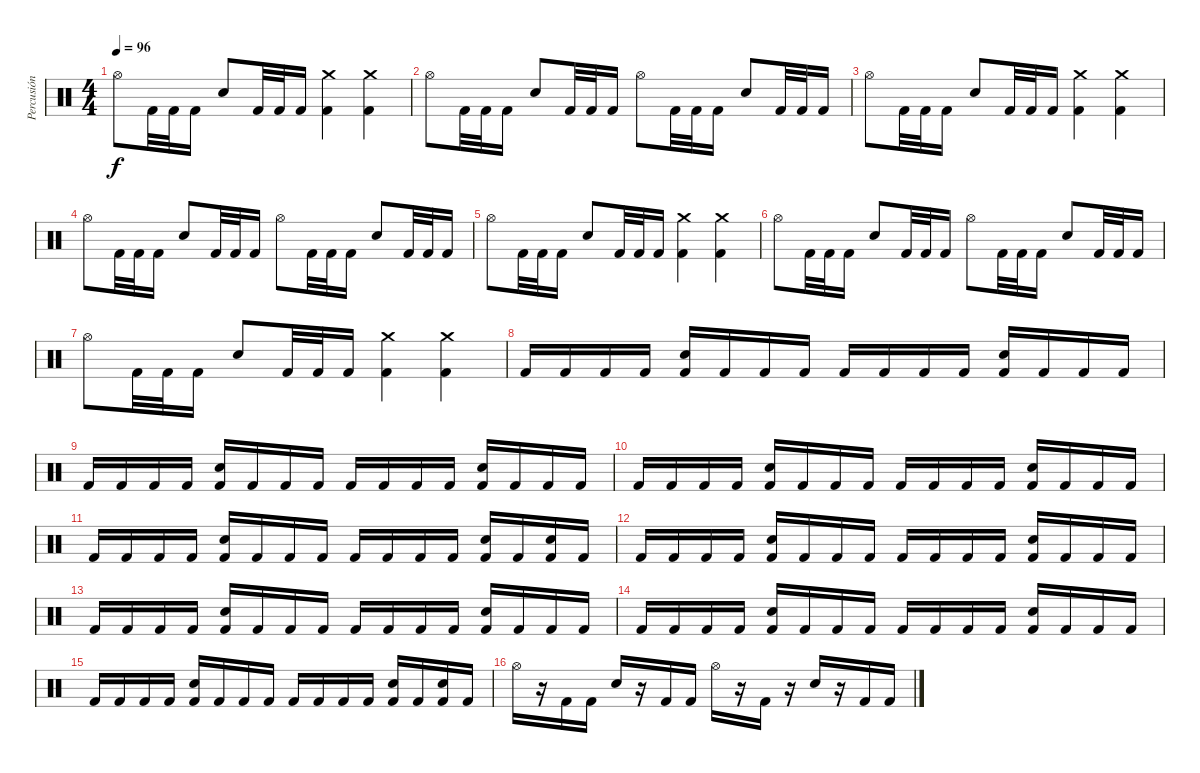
\track ("Percusión" "Percusión") {instrument percussion}
\staff {score}
\articulation defaults
\ts (4 4)
\tempo 96
\clef neutral
\ks c "Hi-Hat (open)".8{dy f} "Kick (hit) 2".32 "Kick (hit) 2".32 "Kick (hit) 2".16 "Snare (hit) 2".8 "Kick (hit) 2".32 "Kick (hit) 2".32 "Kick (hit) 2".16
("Kick (hit) 2" "Crash medium (hit)").4 ("Kick (hit) 2" "Crash medium (hit)").4 |
"Hi-Hat (open)".8 "Kick (hit) 2".32 "Kick (hit) 2".32 "Kick (hit) 2".16 "Snare (hit) 2".8 "Kick (hit) 2".32 "Kick (hit) 2".32 "Kick (hit) 2".16 "Hi-Hat (open)".8 "Kick (hit) 2".32 "Kick (hit) 2".32 "Kick (hit) 2".16 "Snare (hit) 2".8 "Kick (hit) 2".32 "Kick (hit) 2".32 "Kick (hit) 2".16 |
"Hi-Hat (open)".8 "Kick (hit) 2".32 "Kick (hit) 2".32 "Kick (hit) 2".16 "Snare (hit) 2".8 "Kick (hit) 2".32 "Kick (hit) 2".32 "Kick (hit) 2".16 ("Kick (hit) 2" "Crash medium (hit)").4 ("Kick (hit) 2" "Crash medium (hit)").4 |
"Hi-Hat (open)".8 "Kick (hit) 2".32 "Kick (hit) 2".32 "Kick (hit) 2".16 "Snare (hit) 2".8 "Kick (hit) 2".32 "Kick (hit) 2".32 "Kick (hit) 2".16 "Hi-Hat (open)".8 "Kick (hit) 2".32 "Kick (hit) 2".32 "Kick (hit) 2".16 "Snare (hit) 2".8 "Kick (hit) 2".32 "Kick (hit) 2".32 "Kick (hit) 2".16 |
"Hi-Hat (open)".8 "Kick (hit) 2".32 "Kick (hit) 2".32 "Kick (hit) 2".16 "Snare (hit) 2".8 "Kick (hit) 2".32 "Kick (hit) 2".32 "Kick (hit) 2".16 ("Kick (hit) 2" "Crash medium (hit)").4 ("Kick (hit) 2" "Crash medium (hit)").4 |
"Hi-Hat (open)".8 "Kick (hit) 2".32 "Kick (hit) 2".32 "Kick (hit) 2".16 "Snare (hit) 2".8 "Kick (hit) 2".32 "Kick (hit) 2".32 "Kick (hit) 2".16 "Hi-Hat (open)".8 "Kick (hit) 2".32 "Kick (hit) 2".32 "Kick (hit) 2".16 "Snare (hit) 2".8 "Kick (hit) 2".32 "Kick (hit) 2".32 "Kick (hit) 2".16 |
"Hi-Hat (open)".8 "Kick (hit) 2".32 "Kick (hit) 2".32 "Kick (hit) 2".16 "Snare (hit) 2".8 "Kick (hit) 2".32 "Kick (hit) 2".32 "Kick (hit) 2".16 ("Kick (hit) 2" "Crash medium (hit)").4 ("Kick (hit) 2" "Crash medium (hit)").4 |
"Kick (hit) 2".16 "Kick (hit) 2".16 "Kick (hit) 2".16 "Kick (hit) 2".16 ("Kick (hit) 2" "Snare (hit) 2").16 "Kick (hit) 2".16 "Kick (hit) 2".16 "Kick (hit) 2".16 "Kick (hit) 2".16 "Kick (hit) 2".16 "Kick (hit) 2".16 "Kick (hit) 2".16 ("Kick (hit) 2" "Snare (hit) 2").16 "Kick (hit) 2".16 "Kick (hit) 2".16 "Kick (hit) 2".16 |
"Kick (hit) 2".16 "Kick (hit) 2".16 "Kick (hit) 2".16 "Kick (hit) 2".16 ("Kick (hit) 2" "Snare (hit) 2").16 "Kick (hit) 2".16 "Kick (hit) 2".16 "Kick (hit) 2".16 "Kick (hit) 2".16 "Kick (hit) 2".16 "Kick (hit) 2".16 "Kick (hit) 2".16 ("Kick (hit) 2" "Snare (hit) 2").16 "Kick (hit) 2".16 "Kick (hit) 2".16 "Kick (hit) 2".16 |
"Kick (hit) 2".16 "Kick (hit) 2".16 "Kick (hit) 2".16 "Kick (hit) 2".16 ("Kick (hit) 2" "Snare (hit) 2").16 "Kick (hit) 2".16 "Kick (hit) 2".16 "Kick (hit) 2".16 "Kick (hit) 2".16 "Kick (hit) 2".16 "Kick (hit) 2".16 "Kick (hit) 2".16 ("Kick (hit) 2" "Snare (hit) 2").16 "Kick (hit) 2".16 "Kick (hit) 2".16 "Kick (hit) 2".16 |
"Kick (hit) 2".16 "Kick (hit) 2".16 "Kick (hit) 2".16 "Kick (hit) 2".16 ("Kick (hit) 2" "Snare (hit) 2").16 "Kick (hit) 2".16 "Kick (hit) 2".16 "Kick (hit) 2".16 "Kick (hit) 2".16 "Kick (hit) 2".16 "Kick (hit) 2".16 "Kick (hit) 2".16 ("Kick (hit) 2" "Snare (hit) 2").16 "Kick (hit) 2".16 ("Kick (hit) 2" "Snare (hit) 2").16 "Kick (hit) 2".16 |
"Kick (hit) 2".16 "Kick (hit) 2".16 "Kick (hit) 2".16 "Kick (hit) 2".16 ("Kick (hit) 2" "Snare (hit) 2").16 "Kick (hit) 2".16 "Kick (hit) 2".16 "Kick (hit) 2".16 "Kick (hit) 2".16 "Kick (hit) 2".16 "Kick (hit) 2".16 "Kick (hit) 2".16 ("Kick (hit) 2" "Snare (hit) 2").16 "Kick (hit) 2".16 "Kick (hit) 2".16 "Kick (hit) 2".16 |
"Kick (hit) 2".16 "Kick (hit) 2".16 "Kick (hit) 2".16 "Kick (hit) 2".16 ("Kick (hit) 2" "Snare (hit) 2").16 "Kick (hit) 2".16 "Kick (hit) 2".16 "Kick (hit) 2".16 "Kick (hit) 2".16 "Kick (hit) 2".16 "Kick (hit) 2".16 "Kick (hit) 2".16 ("Kick (hit) 2" "Snare (hit) 2").16 "Kick (hit) 2".16 "Kick (hit) 2".16 "Kick (hit) 2".16 |
"Kick (hit) 2".16 "Kick (hit) 2".16 "Kick (hit) 2".16 "Kick (hit) 2".16 ("Kick (hit) 2" "Snare (hit) 2").16 "Kick (hit) 2".16 "Kick (hit) 2".16 "Kick (hit) 2".16 "Kick (hit) 2".16 "Kick (hit) 2".16 "Kick (hit) 2".16 "Kick (hit) 2".16 ("Kick (hit) 2" "Snare (hit) 2").16 "Kick (hit) 2".16 "Kick (hit) 2".16 "Kick (hit) 2".16 |
"Kick (hit) 2".16 "Kick (hit) 2".16 "Kick (hit) 2".16 "Kick (hit) 2".16 ("Kick (hit) 2" "Snare (hit) 2").16 "Kick (hit) 2".16 "Kick (hit) 2".16 "Kick (hit) 2".16 "Kick (hit) 2".16 "Kick (hit) 2".16 "Kick (hit) 2".16 "Kick (hit) 2".16 ("Kick (hit) 2" "Snare (hit) 2").16 "Kick (hit) 2".16 ("Kick (hit) 2" "Snare (hit) 2").16 "Kick (hit) 2".16 |
"Hi-Hat (open)".16 r.16 "Kick (hit) 2".16 "Kick (hit) 2".16 "Snare (hit) 2".16 r.16 "Kick (hit) 2".16 "Kick (hit) 2".16 "Hi-Hat (open)".16 r.16 "Kick (hit) 2".16 r.16 "Snare (hit) 2".16 r.16 "Kick (hit) 2".16 "Kick (hit) 2".16
